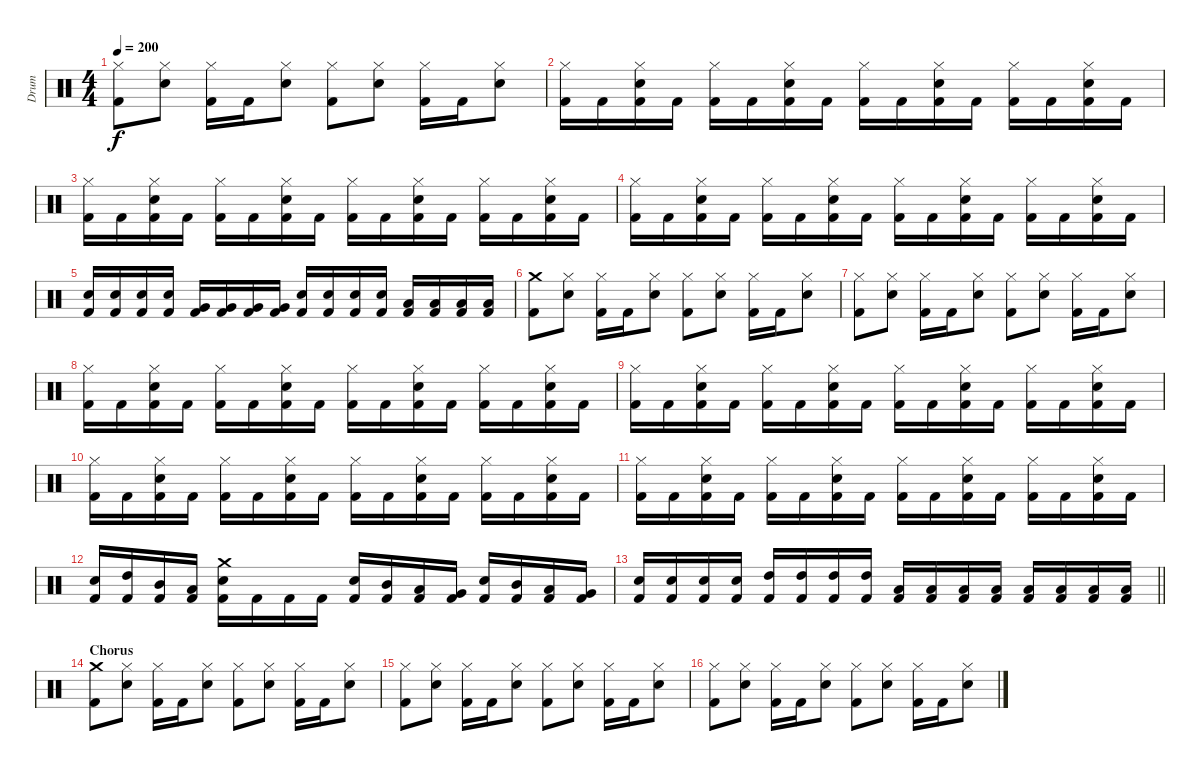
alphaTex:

\track ("Drum" "Drum") {instrument percussion}
\staff {score}
\articulation defaults
\ts (4 4)
\tempo 200
\clef neutral
\ks c
("Kick (hit) 2" "Hi-Hat (closed)").8{dy f} ("Snare (hit) 2" "Hi-Hat (closed)").8 ("Kick (hit) 2" "Hi-Hat (closed)").16 "Kick (hit) 2".16 ("Snare (hit) 2" "Hi-Hat (closed)").8 ("Kick (hit) 2" "Hi-Hat (closed)").8 ("Snare (hit) 2" "Hi-Hat (closed)").8 ("Kick (hit) 2" "Hi-Hat (closed)").16 "Kick (hit) 2".16 ("Snare (hit) 2" "Hi-Hat (closed)").8 |
("Kick (hit) 2" "Hi-Hat (closed)").16 "Kick (hit) 2".16 ("Kick (hit) 2" "Snare (hit) 2" "Hi-Hat (closed)").16 "Kick (hit) 2".16 ("Kick (hit) 2" "Hi-Hat (closed)").16 "Kick (hit) 2".16 ("Kick (hit) 2" "Snare (hit) 2" "Hi-Hat (closed)").16 "Kick (hit) 2".16 ("Kick (hit) 2" "Hi-Hat (closed)").16 "Kick (hit) 2".16 ("Kick (hit) 2" "Snare (hit) 2" "Hi-Hat (closed)").16 "Kick (hit) 2".16 ("Kick (hit) 2" "Hi-Hat (closed)").16 "Kick (hit) 2".16 ("Kick (hit) 2" "Snare (hit) 2" "Hi-Hat (closed)").16 "Kick (hit) 2".16 |
("Kick (hit) 2" "Hi-Hat (closed)").16 "Kick (hit) 2".16 ("Kick (hit) 2" "Snare (hit) 2" "Hi-Hat (closed)").16 "Kick (hit) 2".16 ("Kick (hit) 2" "Hi-Hat (closed)").16 "Kick (hit) 2".16 ("Kick (hit) 2" "Snare (hit) 2" "Hi-Hat (closed)").16 "Kick (hit) 2".16 ("Kick (hit) 2" "Hi-Hat (closed)").16 "Kick (hit) 2".16 ("Kick (hit) 2" "Snare (hit) 2" "Hi-Hat (closed)").16 "Kick (hit) 2".16 ("Kick (hit) 2" "Hi-Hat (closed)").16 "Kick (hit) 2".16 ("Kick (hit) 2" "Snare (hit) 2" "Hi-Hat (closed)").16 "Kick (hit) 2".16 |
("Kick (hit) 2" "Hi-Hat (closed)").16 "Kick (hit) 2".16 ("Kick (hit) 2" "Snare (hit) 2" "Hi-Hat (closed)").16 "Kick (hit) 2".16 ("Kick (hit) 2" "Hi-Hat (closed)").16 "Kick (hit) 2".16 ("Kick (hit) 2" "Snare (hit) 2" "Hi-Hat (closed)").16 "Kick (hit) 2".16 ("Kick (hit) 2" "Hi-Hat (closed)").16 "Kick (hit) 2".16 ("Kick (hit) 2" "Snare (hit) 2" "Hi-Hat (closed)").16 "Kick (hit) 2".16 ("Kick (hit) 2" "Hi-Hat (closed)").16 "Kick (hit) 2".16 ("Kick (hit) 2" "Snare (hit) 2" "Hi-Hat (closed)").16 "Kick (hit) 2".16 |
("Kick (hit) 2" "Snare (hit) 2").16 ("Kick (hit) 2" "Snare (hit) 2").16 ("Kick (hit) 2" "Snare (hit) 2").16 ("Kick (hit) 2" "Snare (hit) 2").16 ("Kick (hit) 2" "Very Low Tom (hit)").16 ("Kick (hit) 2" "Very Low Tom (hit)").16 ("Kick (hit) 2" "Very Low Tom (hit)").16 ("Kick (hit) 2" "Very Low Tom (hit)").16 ("Kick (hit) 2" "Snare (hit) 2").16 ("Kick (hit) 2" "Snare (hit) 2").16 ("Kick (hit) 2" "Snare (hit) 2").16 ("Kick (hit) 2" "Snare (hit) 2").16 ("Kick (hit) 2" "Low Floor Tom (hit)").16 ("Kick (hit) 2" "Low Floor Tom (hit)").16 ("Kick (hit) 2" "Low Floor Tom (hit)").16 ("Kick (hit) 2" "Low Floor Tom (hit)").16 |
("Kick (hit) 2" "Crash medium (hit)").8 ("Snare (hit) 2" "Hi-Hat (closed)").8 ("Kick (hit) 2" "Hi-Hat (closed)").16 "Kick (hit) 2".16 ("Snare (hit) 2" "Hi-Hat (closed)").8 ("Kick (hit) 2" "Hi-Hat (closed)").8 ("Snare (hit) 2" "Hi-Hat (closed)").8 ("Kick (hit) 2" "Hi-Hat (closed)").16 "Kick (hit) 2".16 ("Snare (hit) 2" "Hi-Hat (closed)").8 |
("Kick (hit) 2" "Hi-Hat (closed)").8 ("Snare (hit) 2" "Hi-Hat (closed)").8 ("Kick (hit) 2" "Hi-Hat (closed)").16 "Kick (hit) 2".16 ("Snare (hit) 2" "Hi-Hat (closed)").8 ("Kick (hit) 2" "Hi-Hat (closed)").8 ("Snare (hit) 2" "Hi-Hat (closed)").8 ("Kick (hit) 2" "Hi-Hat (closed)").16 "Kick (hit) 2".16 ("Snare (hit) 2" "Hi-Hat (closed)").8 |
("Kick (hit) 2" "Hi-Hat (closed)").16 "Kick (hit) 2".16 ("Kick (hit) 2" "Snare (hit) 2" "Hi-Hat (closed)").16 "Kick (hit) 2".16 ("Kick (hit) 2" "Hi-Hat (closed)").16 "Kick (hit) 2".16 ("Kick (hit) 2" "Snare (hit) 2" "Hi-Hat (closed)").16 "Kick (hit) 2".16 ("Kick (hit) 2" "Hi-Hat (closed)").16 "Kick (hit) 2".16 ("Kick (hit) 2" "Snare (hit) 2" "Hi-Hat (closed)").16 "Kick (hit) 2".16 ("Kick (hit) 2" "Hi-Hat (closed)").16 "Kick (hit) 2".16 ("Kick (hit) 2" "Snare (hit) 2" "Hi-Hat (closed)").16 "Kick (hit) 2".16 |
("Kick (hit) 2" "Hi-Hat (closed)").16 "Kick (hit) 2".16 ("Kick (hit) 2" "Snare (hit) 2" "Hi-Hat (closed)").16 "Kick (hit) 2".16 ("Kick (hit) 2" "Hi-Hat (closed)").16 "Kick (hit) 2".16 ("Kick (hit) 2" "Snare (hit) 2" "Hi-Hat (closed)").16 "Kick (hit) 2".16 ("Kick (hit) 2" "Hi-Hat (closed)").16 "Kick (hit) 2".16 ("Kick (hit) 2" "Snare (hit) 2" "Hi-Hat (closed)").16 "Kick (hit) 2".16 ("Kick (hit) 2" "Hi-Hat (closed)").16 "Kick (hit) 2".16 ("Kick (hit) 2" "Snare (hit) 2" "Hi-Hat (closed)").16 "Kick (hit) 2".16 |
("Kick (hit) 2" "Hi-Hat (closed)").16 "Kick (hit) 2".16 ("Kick (hit) 2" "Snare (hit) 2" "Hi-Hat (closed)").16 "Kick (hit) 2".16 ("Kick (hit) 2" "Hi-Hat (closed)").16 "Kick (hit) 2".16 ("Kick (hit) 2" "Snare (hit) 2" "Hi-Hat (closed)").16 "Kick (hit) 2".16 ("Kick (hit) 2" "Hi-Hat (closed)").16 "Kick (hit) 2".16 ("Kick (hit) 2" "Snare (hit) 2" "Hi-Hat (closed)").16 "Kick (hit) 2".16 ("Kick (hit) 2" "Hi-Hat (closed)").16 "Kick (hit) 2".16 ("Kick (hit) 2" "Snare (hit) 2" "Hi-Hat (closed)").16 "Kick (hit) 2".16 |
("Kick (hit) 2" "Hi-Hat (closed)").16 "Kick (hit) 2".16 ("Kick (hit) 2" "Snare (hit) 2" "Hi-Hat (closed)").16 "Kick (hit) 2".16 ("Kick (hit) 2" "Hi-Hat (closed)").16 "Kick (hit) 2".16 ("Kick (hit) 2" "Snare (hit) 2" "Hi-Hat (closed)").16 "Kick (hit) 2".16 ("Kick (hit) 2" "Hi-Hat (closed)").16 "Kick (hit) 2".16 ("Kick (hit) 2" "Snare (hit) 2" "Hi-Hat (closed)").16 "Kick (hit) 2".16 ("Kick (hit) 2" "Hi-Hat (closed)").16 "Kick (hit) 2".16 ("Kick (hit) 2" "Snare (hit) 2" "Hi-Hat (closed)").16 "Kick (hit) 2".16 |
("Kick (hit) 2" "Snare (hit) 2").16 ("Kick (hit) 2" "High Tom (hit)").16 ("Kick (hit) 2" "Mid Tom (hit)").16 ("Kick (hit) 2" "Low Tom (hit)").16 ("Kick (hit) 2" "Snare (hit) 2" "Crash medium (hit)").16 "Kick (hit) 2".16 "Kick (hit) 2".16 "Kick (hit) 2".16 ("Kick (hit) 2" "Snare (hit) 2").16 ("Kick (hit) 2" "Mid Tom (hit)").16 ("Kick (hit) 2" "Low Tom (hit)").16 ("Kick (hit) 2" "Very Low Tom (hit)").16 ("Kick (hit) 2" "Snare (hit) 2").16 ("Kick (hit) 2" "Mid Tom (hit)").16 ("Kick (hit) 2" "Low Tom (hit)").16 ("Kick (hit) 2" "Very Low Tom (hit)").16 |
\barLineRight lightlight
("Kick (hit) 2" "Snare (hit) 2").16 ("Kick (hit) 2" "Snare (hit) 2").16 ("Kick (hit) 2" "Snare (hit) 2").16 ("Kick (hit) 2" "Snare (hit) 2").16 ("Kick (hit) 2" "High Tom (hit)").16 ("Kick (hit) 2" "High Tom (hit)").16 ("Kick (hit) 2" "High Tom (hit)").16 ("Kick (hit) 2" "High Tom (hit)").16 ("Kick (hit) 2" "Low Tom (hit)").16 ("Kick (hit) 2" "Low Tom (hit)").16 ("Kick (hit) 2" "Low Tom (hit)").16 ("Kick (hit) 2" "Low Tom (hit)").16 ("Kick (hit) 2" "Low Floor Tom (hit)").16 ("Kick (hit) 2" "Low Floor Tom (hit)").16 ("Kick (hit) 2" "Low Floor Tom (hit)").16 ("Kick (hit) 2" "Low Floor Tom (hit)").16 |
\section ("" "Chorus")
("Kick (hit) 2" "Crash medium (hit)").8 ("Snare (hit) 2" "Hi-Hat (closed)").8 ("Kick (hit) 2" "Hi-Hat (closed)").16 "Kick (hit) 2".16 ("Snare (hit) 2" "Hi-Hat (closed)").8 ("Kick (hit) 2" "Hi-Hat (closed)").8 ("Snare (hit) 2" "Hi-Hat (closed)").8 ("Kick (hit) 2" "Hi-Hat (closed)").16 "Kick (hit) 2".16 ("Snare (hit) 2" "Hi-Hat (closed)").8 |
("Kick (hit) 2" "Hi-Hat (closed)").8 ("Snare (hit) 2" "Hi-Hat (closed)").8 ("Kick (hit) 2" "Hi-Hat (closed)").16 "Kick (hit) 2".16 ("Snare (hit) 2" "Hi-Hat (closed)").8 ("Kick (hit) 2" "Hi-Hat (closed)").8 ("Snare (hit) 2" "Hi-Hat (closed)").8 ("Kick (hit) 2" "Hi-Hat (closed)").16 "Kick (hit) 2".16 ("Snare (hit) 2" "Hi-Hat (closed)").8 |
("Kick (hit) 2" "Hi-Hat (closed)").8 ("Snare (hit) 2" "Hi-Hat (closed)").8 ("Kick (hit) 2" "Hi-Hat (closed)").16 "Kick (hit) 2".16 ("Snare (hit) 2" "Hi-Hat (closed)").8 ("Kick (hit) 2" "Hi-Hat (closed)").8 ("Snare (hit) 2" "Hi-Hat (closed)").8 ("Kick (hit) 2" "Hi-Hat (closed)").16 "Kick (hit) 2".16 ("Snare (hit) 2" "Hi-Hat (closed)").8
